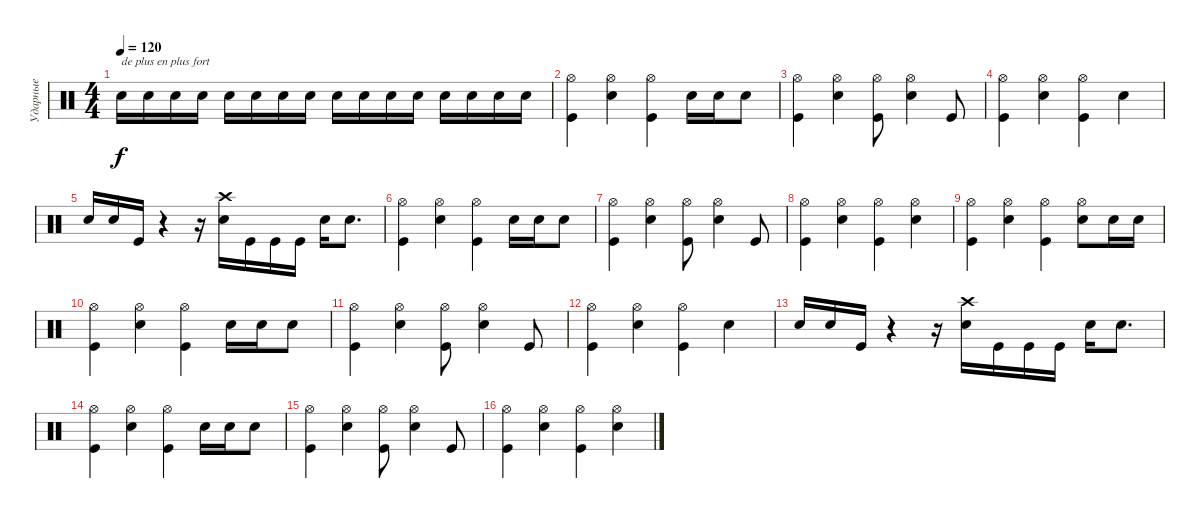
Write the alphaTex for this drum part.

\track ("Ударные" "Ударные") {instrument percussion}
\staff {score}
\articulation defaults
\ts (4 4)
\tempo 120
\clef neutral
\ks c "Snare (hit) 2".16{txt "de plus en plus fort" dy f} "Snare (hit) 2".16 "Snare (hit) 2".16 "Snare (hit) 2".16 "Snare (hit) 2".16 "Snare (hit) 2".16 "Snare (hit) 2".16 "Snare (hit) 2".16 "Snare (hit) 2".16 "Snare (hit) 2".16 "Snare (hit) 2".16 "Snare (hit) 2".16 "Snare (hit) 2".16 "Snare (hit) 2".16 "Snare (hit) 2".16 "Snare (hit) 2".16
|
("Kick (hit)" "Hi-Hat (open)").4 ("Snare (hit) 2" "Hi-Hat (open)").4 ("Kick (hit)" "Hi-Hat (open)").4 "Snare (hit) 2".16 "Snare (hit) 2".16 "Snare (hit) 2".8 |
("Hi-Hat (open)" "Kick (hit)").4 ("Hi-Hat (open)" "Snare (hit) 2").4 ("Hi-Hat (open)" "Kick (hit)").8 ("Hi-Hat (open)" "Snare (hit) 2").4 "Kick (hit)".8 |
("Hi-Hat (open)" "Kick (hit)").4 ("Hi-Hat (open)" "Snare (hit) 2").4 ("Hi-Hat (open)" "Kick (hit)").4 "Snare (hit) 2".4 |
"Snare (hit) 2".16 "Snare (hit) 2".16 "Kick (hit)".16 r.4 r.16 ("Crash high (hit)" "Snare (hit) 2").16 "Kick (hit)".16 "Kick (hit)".16 "Kick (hit)".16 "Snare (hit) 2".16 "Snare (hit) 2".8{d} |
("Kick (hit)" "Hi-Hat (open)").4 ("Snare (hit) 2" "Hi-Hat (open)").4 ("Kick (hit)" "Hi-Hat (open)").4 "Snare (hit) 2".16 "Snare (hit) 2".16 "Snare (hit) 2".8 |
("Hi-Hat (open)" "Kick (hit)").4 ("Hi-Hat (open)" "Snare (hit) 2").4 ("Hi-Hat (open)" "Kick (hit)").8 ("Hi-Hat (open)" "Snare (hit) 2").4 "Kick (hit)".8 |
("Hi-Hat (open)" "Kick (hit)").4 ("Hi-Hat (open)" "Snare (hit) 2").4 ("Hi-Hat (open)" "Kick (hit)").4 ("Hi-Hat (open)" "Snare (hit) 2").4 |
("Hi-Hat (open)" "Kick (hit)").4 ("Hi-Hat (open)" "Snare (hit) 2").4 ("Hi-Hat (open)" "Kick (hit)").4 ("Hi-Hat (open)" "Snare (hit) 2").8 "Snare (hit) 2".16 "Snare (hit) 2".16 |
("Kick (hit)" "Hi-Hat (open)").4 ("Snare (hit) 2" "Hi-Hat (open)").4 ("Kick (hit)" "Hi-Hat (open)").4 "Snare (hit) 2".16 "Snare (hit) 2".16 "Snare (hit) 2".8 |
("Hi-Hat (open)" "Kick (hit)").4 ("Hi-Hat (open)" "Snare (hit) 2").4 ("Hi-Hat (open)" "Kick (hit)").8 ("Hi-Hat (open)" "Snare (hit) 2").4 "Kick (hit)".8 |
("Hi-Hat (open)" "Kick (hit)").4 ("Hi-Hat (open)" "Snare (hit) 2").4 ("Hi-Hat (open)" "Kick (hit)").4 "Snare (hit) 2".4 |
"Snare (hit) 2".16 "Snare (hit) 2".16 "Kick (hit)".16 r.4 r.16 ("Crash high (hit)" "Snare (hit) 2").16 "Kick (hit)".16 "Kick (hit)".16 "Kick (hit)".16 "Snare (hit) 2".16 "Snare (hit) 2".8{d} |
("Kick (hit)" "Hi-Hat (open)").4 ("Snare (hit) 2" "Hi-Hat (open)").4 ("Kick (hit)" "Hi-Hat (open)").4 "Snare (hit) 2".16 "Snare (hit) 2".16 "Snare (hit) 2".8 |
("Hi-Hat (open)" "Kick (hit)").4 ("Hi-Hat (open)" "Snare (hit) 2").4 ("Hi-Hat (open)" "Kick (hit)").8 ("Hi-Hat (open)" "Snare (hit) 2").4 "Kick (hit)".8 |
("Hi-Hat (open)" "Kick (hit)").4 ("Hi-Hat (open)" "Snare (hit) 2").4 ("Hi-Hat (open)" "Kick (hit)").4 ("Hi-Hat (open)" "Snare (hit) 2").4
